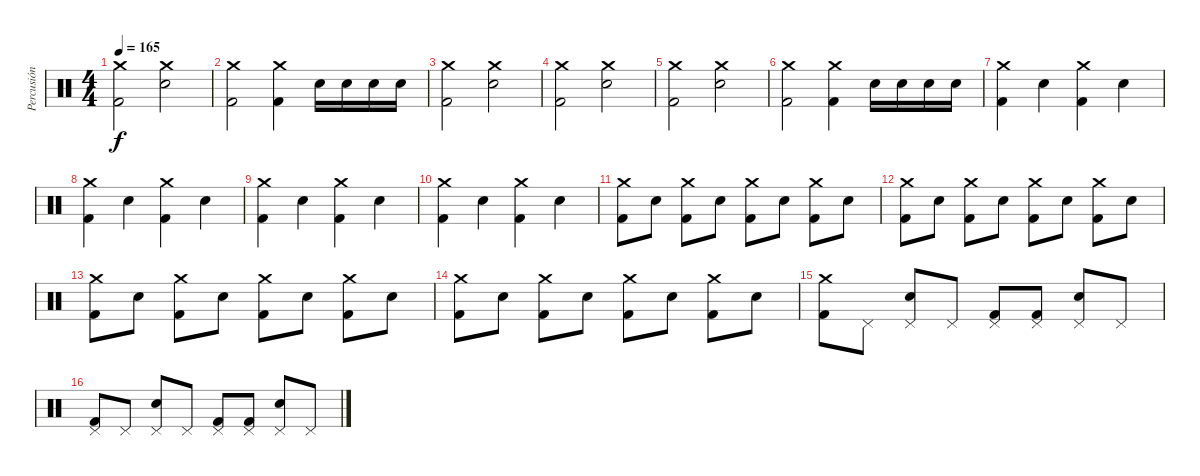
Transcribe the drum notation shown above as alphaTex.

\track ("Percusión" "Percusión") {instrument percussion}
\staff {score}
\articulation defaults
\ts (4 4)
\tempo 165
\clef neutral
\ks c
("Crash medium (hit)" "Kick (hit) 2").2{dy f} ("Crash medium (hit)" "Electric Snare (hit)").2 |
("Crash medium (hit)" "Kick (hit) 2").2 ("Crash medium (hit)" "Kick (hit) 2").4 "Electric Snare (hit)".16 "Electric Snare (hit)".16 "Electric Snare (hit)".16 "Electric Snare (hit)".16 |
("Crash medium (hit)" "Kick (hit) 2").2 ("Crash medium (hit)" "Electric Snare (hit)").2 |
("Crash medium (hit)" "Kick (hit) 2").2 ("Crash medium (hit)" "Electric Snare (hit)").2 |
("Crash medium (hit)" "Kick (hit) 2").2 ("Crash medium (hit)" "Electric Snare (hit)").2 |
("Crash medium (hit)" "Kick (hit) 2").2 ("Crash medium (hit)" "Kick (hit) 2").4 "Electric Snare (hit)".16 "Electric Snare (hit)".16 "Electric Snare (hit)".16 "Electric Snare (hit)".16 |
("Crash medium (hit)" "Kick (hit) 2").4 "Electric Snare (hit)".4 ("Crash medium (hit)" "Kick (hit) 2").4 "Electric Snare (hit)".4 |
("Crash medium (hit)" "Kick (hit) 2").4 "Electric Snare (hit)".4 ("Crash medium (hit)" "Kick (hit) 2").4 "Electric Snare (hit)".4 |
("Crash medium (hit)" "Kick (hit) 2").4 "Electric Snare (hit)".4 ("Crash medium (hit)" "Kick (hit) 2").4 "Electric Snare (hit)".4 |
("Crash medium (hit)" "Kick (hit) 2").4 "Electric Snare (hit)".4 ("Crash medium (hit)" "Kick (hit) 2").4 "Electric Snare (hit)".4 |
("Crash medium (hit)" "Kick (hit) 2").8 "Electric Snare (hit)".8 ("Crash medium (hit)" "Kick (hit) 2").8 "Electric Snare (hit)".8 ("Crash medium (hit)" "Kick (hit) 2").8 "Electric Snare (hit)".8 ("Crash medium (hit)" "Kick (hit) 2").8 "Electric Snare (hit)".8 |
("Crash medium (hit)" "Kick (hit) 2").8 "Electric Snare (hit)".8 ("Crash medium (hit)" "Kick (hit) 2").8 "Electric Snare (hit)".8 ("Crash medium (hit)" "Kick (hit) 2").8 "Electric Snare (hit)".8 ("Crash medium (hit)" "Kick (hit) 2").8 "Electric Snare (hit)".8 |
("Crash medium (hit)" "Kick (hit) 2").8 "Electric Snare (hit)".8 ("Crash medium (hit)" "Kick (hit) 2").8 "Electric Snare (hit)".8 ("Crash medium (hit)" "Kick (hit) 2").8 "Electric Snare (hit)".8 ("Crash medium (hit)" "Kick (hit) 2").8 "Electric Snare (hit)".8 |
("Crash medium (hit)" "Kick (hit) 2").8 "Electric Snare (hit)".8 ("Crash medium (hit)" "Kick (hit) 2").8 "Electric Snare (hit)".8 ("Crash medium (hit)" "Kick (hit) 2").8 "Electric Snare (hit)".8 ("Crash medium (hit)" "Kick (hit) 2").8 "Electric Snare (hit)".8 |
("Crash medium (hit)" "Kick (hit) 2").8 "Pedal Hi-Hat (hit)".8 ("Pedal Hi-Hat (hit)" "Electric Snare (hit)").8 "Pedal Hi-Hat (hit)".8 ("Pedal Hi-Hat (hit)" "Kick (hit) 2").8 ("Pedal Hi-Hat (hit)" "Kick (hit) 2").8 ("Pedal Hi-Hat (hit)" "Electric Snare (hit)").8 "Pedal Hi-Hat (hit)".8 |
("Pedal Hi-Hat (hit)" "Kick (hit) 2").8 "Pedal Hi-Hat (hit)".8 ("Pedal Hi-Hat (hit)" "Electric Snare (hit)").8 "Pedal Hi-Hat (hit)".8 ("Pedal Hi-Hat (hit)" "Kick (hit) 2").8 ("Pedal Hi-Hat (hit)" "Kick (hit) 2").8 ("Pedal Hi-Hat (hit)" "Electric Snare (hit)").8 "Pedal Hi-Hat (hit)".8
